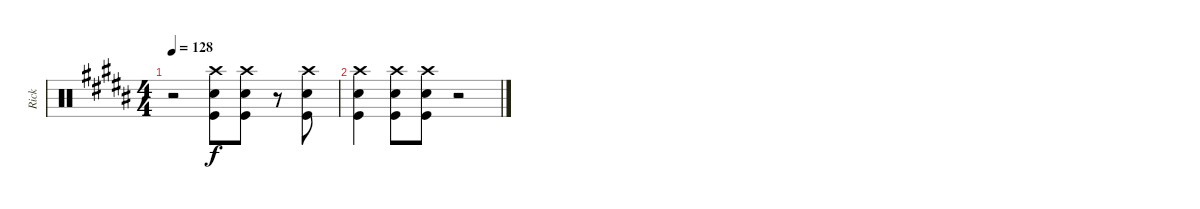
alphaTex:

\track ("Rick" "Rick") {instrument percussion}
\staff {score}
\articulation defaults
\ts (4 4)
\tempo 128
\clef neutral
\ks b
r.2{dy f} ("Crash high (hit)" "Snare (hit) 2" "Kick (hit)").8 ("Crash high (hit)" "Snare (hit) 2" "Kick (hit)").8 r.8 ("Crash high (hit)" "Snare (hit) 2" "Kick (hit)").8 |
("Crash high (hit)" "Snare (hit) 2" "Kick (hit)").4 ("Crash high (hit)" "Snare (hit) 2" "Kick (hit)").8 ("Crash high (hit)" "Snare (hit) 2" "Kick (hit)").8 r.2
